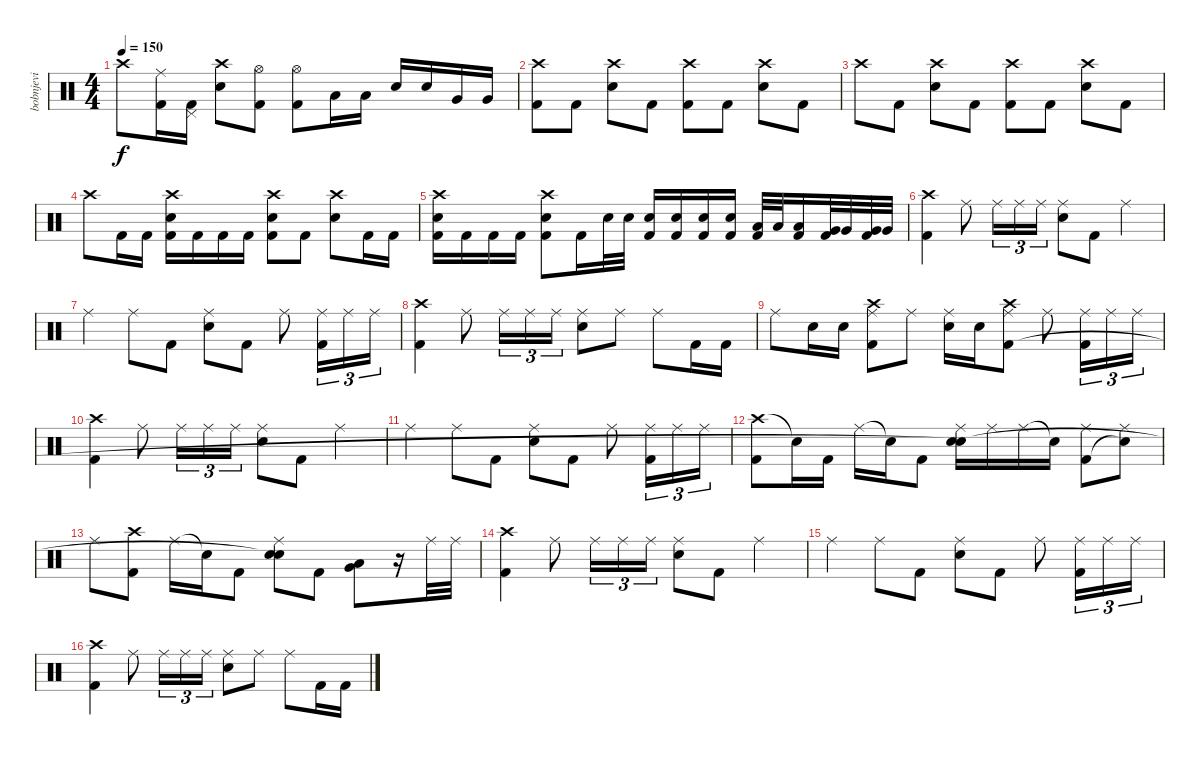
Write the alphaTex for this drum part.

\track ("bobnjevi" "bobnjevi") {instrument percussion}
\staff {score}
\articulation defaults
\ts (4 4)
\tempo 150
\clef neutral
\ks c "Crash high (hit)".8{dy f}
("Ride (middle)" "Kick (hit) 2").16 ("Pedal Hi-Hat (hit)" "Kick (hit) 2").16 ("Crash high (hit)" "Snare (hit) 2").8 ("Hi-Hat (open)" "Kick (hit) 2").8 ("Hi-Hat (open)" "Kick (hit) 2").8 "Low Tom (hit)".16 "Low Tom (hit)".16 "Electric Snare (hit)".16 "Electric Snare (hit)".16 "Very Low Tom (hit)".16 "Very Low Tom (hit)".16 |
("Crash high (hit)" "Kick (hit) 2").8 "Kick (hit) 2".8 ("Crash high (hit)" "Snare (hit) 2").8 "Kick (hit) 2".8 ("Crash high (hit)" "Kick (hit) 2").8 "Kick (hit) 2".8 ("Crash high (hit)" "Snare (hit) 2").8 "Kick (hit) 2".8 |
"Crash high (hit)".8 "Kick (hit) 2".8 ("Crash high (hit)" "Snare (hit) 2").8 "Kick (hit) 2".8 ("Crash high (hit)" "Kick (hit) 2").8 "Kick (hit) 2".8 ("Crash high (hit)" "Snare (hit) 2").8 "Kick (hit) 2".8 |
"Crash high (hit)".8 "Kick (hit) 2".16 "Kick (hit) 2".16 ("Crash high (hit)" "Electric Snare (hit)" "Kick (hit) 2").16 "Kick (hit) 2".16 "Kick (hit) 2".16 "Kick (hit) 2".16 ("Crash high (hit)" "Electric Snare (hit)" "Kick (hit) 2").8 "Kick (hit) 2".8 ("Crash high (hit)" "Electric Snare (hit)").8 "Kick (hit) 2".16 "Kick (hit) 2".16 |
("Crash high (hit)" "Electric Snare (hit)" "Kick (hit) 2").16 "Kick (hit) 2".16 "Kick (hit) 2".16 "Kick (hit) 2".16 ("Crash high (hit)" "Electric Snare (hit)" "Kick (hit) 2").8 "Kick (hit) 2".16 "Electric Snare (hit)".32 "Electric Snare (hit)".32 ("Electric Snare (hit)" "Kick (hit) 2").16 ("Electric Snare (hit)" "Kick (hit) 2").16 ("Electric Snare (hit)" "Kick (hit) 2").16 ("Electric Snare (hit)" "Kick (hit) 2").16 ("Low Tom (hit)" "Kick (hit) 2").32 "Low Tom (hit)".32 ("Low Tom (hit)" "Kick (hit) 2").16 ("Very Low Tom (hit)" "Kick (hit) 2").32 "Very Low Tom (hit)".32 ("Very Low Tom (hit)" "Kick (hit) 2").32 "Very Low Tom (hit)".32 |
("Crash high (hit)" "Kick (hit) 2").4 "Ride (middle)".8 "Ride (middle)".16{tu (3 2)} "Ride (middle)".16{tu (3 2)} "Ride (middle)".16{tu (3 2)} ("Ride (middle)" "Electric Snare (hit)").8 "Kick (hit) 2".8 "Ride (middle)".4 |
"Ride (middle)".4 "Ride (middle)".8 "Kick (hit) 2".8 ("Ride (middle)" "Electric Snare (hit)").8 "Kick (hit) 2".8 "Ride (middle)".8 ("Ride (middle)" "Kick (hit) 2").16{tu (3 2)} "Ride (middle)".16{tu (3 2)} "Ride (middle)".16{tu (3 2)} |
("Crash high (hit)" "Kick (hit) 2").4 "Ride (middle)".8 "Ride (middle)".16{tu (3 2)} "Ride (middle)".16{tu (3 2)} "Ride (middle)".16{tu (3 2)} ("Ride (middle)" "Electric Snare (hit)").8 "Ride (middle)".8 "Ride (middle)".8 "Kick (hit) 2".16 "Kick (hit) 2".16 |
"Ride (middle)".8 "Electric Snare (hit)".16 "Electric Snare (hit)".16 ("Crash high (hit)" "Ride (middle)" "Kick (hit) 2").8 "Ride (middle)".8 ("Ride (middle)" "Electric Snare (hit)").16 "Electric Snare (hit)".16 ("Crash high (hit)" "Ride (middle)" "Kick (hit) 2").8 "Ride (middle)".8 ("Ride (middle)" "Kick (hit) 2").16{tu (3 2)} "Ride (middle)".16{tu (3 2)} "Ride (middle)".16{tu (3 2)} |
("Crash high (hit)" "Kick (hit) 2").4 "Ride (middle)".8 "Ride (middle)".16{tu (3 2)} "Ride (middle)".16{tu (3 2)} "Ride (middle)".16{tu (3 2)} ("Ride (middle)" "Electric Snare (hit)").8 "Kick (hit) 2".8 "Ride (middle)".4 |
"Ride (middle)".4 "Ride (middle)".8 "Kick (hit) 2".8 ("Ride (middle)" "Electric Snare (hit)").8 "Kick (hit) 2".8 "Ride (middle)".8 ("Ride (middle)" "Kick (hit) 2").16{tu (3 2)} "Ride (middle)".16{tu (3 2)} "Ride (middle)".16{tu (3 2)} |
("Crash high (hit)" "Kick (hit) 2").8 "Snare (hit)"{t}.16 "Kick (hit) 2".16 "Ride (middle)".16 "Snare (hit)"{t}.16 "Kick (hit) 2".8 ("Ride (middle)" "Electric Snare (hit)" "Snare (hit)"{t}).16 "Ride (middle)".16 "Ride (middle)".16 "Snare (hit)"{t}.16 ("Ride (middle)" "Kick (hit) 2").8 ("Ride (middle)" "Snare (hit)"{t}).8 |
"Ride (middle)".8 ("Crash high (hit)" "Kick (hit) 2").8 "Ride (middle)".16 "Snare (hit)"{t}.16 "Kick (hit) 2".8 ("Ride (middle)" "Electric Snare (hit)" "Snare (hit)"{t}).8 "Kick (hit) 2".8 ("Very Low Tom (hit)" "Low Tom (hit)").8 r.16 "Ride (middle)".32 "Ride (middle)".32 |
("Crash high (hit)" "Kick (hit) 2").4 "Ride (middle)".8 "Ride (middle)".16{tu (3 2)} "Ride (middle)".16{tu (3 2)} "Ride (middle)".16{tu (3 2)} ("Ride (middle)" "Electric Snare (hit)").8 "Kick (hit) 2".8 "Ride (middle)".4 |
"Ride (middle)".4 "Ride (middle)".8 "Kick (hit) 2".8 ("Ride (middle)" "Electric Snare (hit)").8 "Kick (hit) 2".8 "Ride (middle)".8 ("Ride (middle)" "Kick (hit) 2").16{tu (3 2)} "Ride (middle)".16{tu (3 2)} "Ride (middle)".16{tu (3 2)} |
("Crash high (hit)" "Kick (hit) 2").4 "Ride (middle)".8 "Ride (middle)".16{tu (3 2)} "Ride (middle)".16{tu (3 2)} "Ride (middle)".16{tu (3 2)} ("Ride (middle)" "Electric Snare (hit)").8 "Ride (middle)".8 "Ride (middle)".8 "Kick (hit) 2".16 "Kick (hit) 2".16
